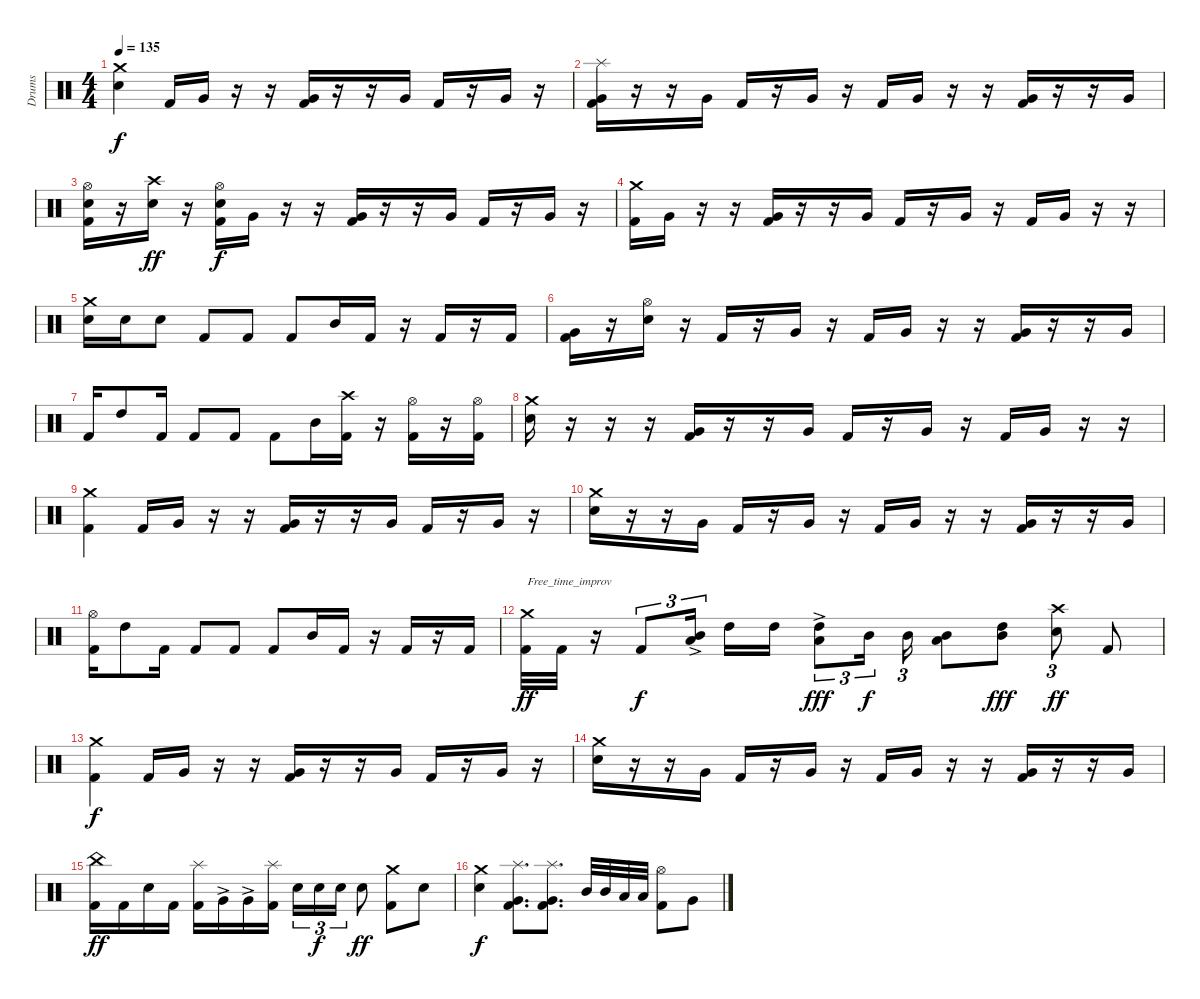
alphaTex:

\track ("Drums" "Drums") {instrument percussion}
\staff {score}
\articulation defaults
\ts (4 4)
\tempo 135
\clef neutral
\ks c
("Crash medium (hit)" "Electric Snare (hit)").4{dy f} "Kick (hit) 2".16 "Very Low Tom (hit)".16 r.16 r.16 ("Very Low Tom (hit)" "Kick (hit) 2").16 r.16 r.16 "Very Low Tom (hit)".16 "Kick (hit) 2".16 r.16 "Very Low Tom (hit)".16 r.16 |
("Splash (hit)" "Very Low Tom (hit)" "Kick (hit) 2").16 r.16 r.16 "Very Low Tom (hit)".16 "Kick (hit) 2".16 r.16 "Very Low Tom (hit)".16 r.16 "Kick (hit) 2".16 "Very Low Tom (hit)".16 r.16 r.16 ("Very Low Tom (hit)" "Kick (hit) 2").16 r.16 r.16 "Very Low Tom (hit)".16 |
("Hi-Hat (open)" "Electric Snare (hit)" "Kick (hit) 2").16 r.16 ("Crash high (hit)" "Electric Snare (hit)").16{dy ff} r.16 ("Hi-Hat (open)" "Electric Snare (hit)" "Kick (hit) 2").16{dy f} "Very Low Tom (hit)".16 r.16 r.16 ("Very Low Tom (hit)" "Kick (hit) 2").16 r.16 r.16 "Very Low Tom (hit)".16 "Kick (hit) 2".16 r.16 "Very Low Tom (hit)".16 r.16 |
("Crash medium (hit)" "Kick (hit) 2").16 "Very Low Tom (hit)".16 r.16 r.16 ("Very Low Tom (hit)" "Kick (hit) 2").16 r.16 r.16 "Very Low Tom (hit)".16 "Kick (hit) 2".16 r.16 "Very Low Tom (hit)".16 r.16 "Kick (hit) 2".16 "Very Low Tom (hit)".16 r.16 r.16 |
("Crash medium (hit)" "Electric Snare (hit)").16 "Electric Snare (hit)".16 "Electric Snare (hit)".8 "Kick (hit) 2".8 "Kick (hit) 2".8 "Kick (hit) 2".8 "Mid Tom (hit)".16 "Kick (hit) 2".16 r.16 "Kick (hit) 2".16 r.16 "Kick (hit) 2".16 |
("Very Low Tom (hit)" "Kick (hit) 2").16 r.16 ("Hi-Hat (open)" "Electric Snare (hit)").16 r.16 "Kick (hit) 2".16 r.16 "Very Low Tom (hit)".16 r.16 "Kick (hit) 2".16 "Very Low Tom (hit)".16 r.16 r.16 ("Very Low Tom (hit)" "Kick (hit) 2").16 r.16 r.16 "Very Low Tom (hit)".16 |
"Kick (hit) 2".16 "High Tom (hit)".8 "Kick (hit) 2".16 "Kick (hit) 2".8 "Kick (hit) 2".8 "Kick (hit) 2".8 "Mid Tom (hit)".16 ("Crash high (hit)" "Kick (hit) 2").16 r.16 ("Hi-Hat (open)" "Kick (hit) 2").16 r.16 ("Hi-Hat (open)" "Kick (hit) 2").16 |
("Crash medium (hit)" "Electric Snare (hit)").16 r.16 r.16 r.16 ("Very Low Tom (hit)" "Kick (hit) 2").16 r.16 r.16 "Very Low Tom (hit)".16 "Kick (hit) 2".16 r.16 "Very Low Tom (hit)".16 r.16 "Kick (hit) 2".16 "Very Low Tom (hit)".16 r.16 r.16 |
("Crash medium (hit)" "Kick (hit) 2").4 "Kick (hit) 2".16 "Very Low Tom (hit)".16 r.16 r.16 ("Very Low Tom (hit)" "Kick (hit) 2").16 r.16 r.16 "Very Low Tom (hit)".16 "Kick (hit) 2".16 r.16 "Very Low Tom (hit)".16 r.16 |
("Crash medium (hit)" "Electric Snare (hit)").16 r.16 r.16 "Very Low Tom (hit)".16 "Kick (hit) 2".16 r.16 "Very Low Tom (hit)".16 r.16 "Kick (hit) 2".16 "Very Low Tom (hit)".16 r.16 r.16 ("Very Low Tom (hit)" "Kick (hit) 2").16 r.16 r.16 "Very Low Tom (hit)".16 |
("Hi-Hat (open)" "Kick (hit) 2").16 "High Tom (hit)".8 "Kick (hit) 2".16 "Kick (hit) 2".8 "Kick (hit) 2".8 "Kick (hit) 2".8 "Mid Tom (hit)".16 "Kick (hit) 2".16 r.16 "Kick (hit) 2".16 r.16 "Kick (hit) 2".16 |
("Crash medium (hit)" "Kick (hit) 2").32{txt "Free_time_improv" dy ff} "Kick (hit) 2".32 r.16 "Kick (hit) 2".8{tu (3 2) dy f} ("Mid Tom (hit)" "Low Tom (hit)"{ac}).16{tu (3 2)} "High Tom (hit)".16 "High Tom (hit)".16 ("High Tom (hit)"{ac} "Low Tom (hit)").8{tu (3 2) dy fff} "Mid Tom (hit)".16{tu (3 2) dy f} "Mid Tom (hit)".16{tu (3 2)} ("Mid Tom (hit)" "Low Tom (hit)").8 ("High Tom (hit)" "Mid Tom (hit)").8{dy fff} ("Crash high (hit)" "Electric Snare (hit)").8{tu (3 2) dy ff} "Kick (hit) 2".8 |
("Crash medium (hit)" "Kick (hit) 2").4{dy f} "Kick (hit) 2".16 "Very Low Tom (hit)".16 r.16 r.16 ("Very Low Tom (hit)" "Kick (hit) 2").16 r.16 r.16 "Very Low Tom (hit)".16 "Kick (hit) 2".16 r.16 "Very Low Tom (hit)".16 r.16 |
("Crash medium (hit)" "Electric Snare (hit)").16 r.16 r.16 "Very Low Tom (hit)".16 "Kick (hit) 2".16 r.16 "Very Low Tom (hit)".16 r.16 "Kick (hit) 2".16 "Very Low Tom (hit)".16 r.16 r.16 ("Very Low Tom (hit)" "Kick (hit) 2").16 r.16 r.16 "Very Low Tom (hit)".16 |
("China (hit)" "Kick (hit) 2").16{dy ff} "Kick (hit) 2".16 "Electric Snare (hit)".16 "Kick (hit) 2".16 ("Splash (hit)" "Kick (hit) 2").16 "Very Low Tom (hit)"{ac}.16 "Very Low Tom (hit)"{ac}.16 ("Splash (hit)" "Kick (hit) 2").16 "Electric Snare (hit)".16{tu (3 2)} "Electric Snare (hit)".16{tu (3 2) dy f} "Electric Snare (hit)".16{tu (3 2)} "Electric Snare (hit)".8{dy ff} ("Crash medium (hit)" "Kick (hit) 2").8 "Electric Snare (hit)".8 |
("Crash medium (hit)" "Electric Snare (hit)").4{dy f} ("Splash (hit)" "Very Low Tom (hit)" "Kick (hit) 2").8{d} ("Splash (hit)" "Very Low Tom (hit)" "Kick (hit) 2").8{d} "Mid Tom (hit)".32 "Mid Tom (hit)".32 "Low Tom (hit)".32 "Low Tom (hit)".32 ("Hi-Hat (open)" "Kick (hit) 2").8 "Very Low Tom (hit)".8
